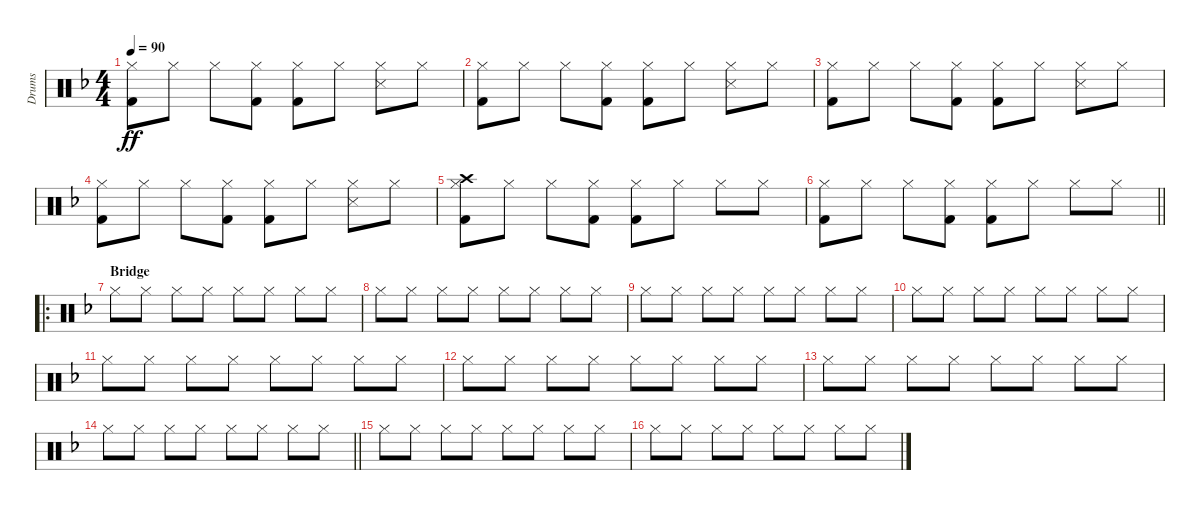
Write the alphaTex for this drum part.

\track ("Drums" "Drums") {instrument percussion}
\staff {score}
\articulation defaults
\ts (4 4)
\tempo 90
\clef neutral
\ks f
("Hi-Hat (closed)" "Kick (hit) 2").8{dy ff} "Hi-Hat (closed)".8 "Hi-Hat (closed)".8 ("Hi-Hat (closed)" "Kick (hit) 2").8 ("Hi-Hat (closed)" "Kick (hit) 2").8 "Hi-Hat (closed)".8 ("Hi-Hat (closed)" "Snare (side stick) 3").8 "Hi-Hat (closed)".8 |
("Hi-Hat (closed)" "Kick (hit) 2").8 "Hi-Hat (closed)".8 "Hi-Hat (closed)".8 ("Hi-Hat (closed)" "Kick (hit) 2").8 ("Hi-Hat (closed)" "Kick (hit) 2").8 "Hi-Hat (closed)".8 ("Hi-Hat (closed)" "Snare (side stick) 3").8 "Hi-Hat (closed)".8 |
("Hi-Hat (closed)" "Kick (hit) 2").8 "Hi-Hat (closed)".8 "Hi-Hat (closed)".8 ("Hi-Hat (closed)" "Kick (hit) 2").8 ("Hi-Hat (closed)" "Kick (hit) 2").8 "Hi-Hat (closed)".8 ("Hi-Hat (closed)" "Snare (side stick) 3").8 "Hi-Hat (closed)".8 |
("Hi-Hat (closed)" "Kick (hit) 2").8 "Hi-Hat (closed)".8 "Hi-Hat (closed)".8 ("Hi-Hat (closed)" "Kick (hit) 2").8 ("Hi-Hat (closed)" "Kick (hit) 2").8 "Hi-Hat (closed)".8 ("Hi-Hat (closed)" "Snare (side stick) 3").8 "Hi-Hat (closed)".8 |
("Hi-Hat (closed)" "Crash high (hit)" "Kick (hit) 2").8 "Hi-Hat (closed)".8 "Hi-Hat (closed)".8 ("Hi-Hat (closed)" "Kick (hit) 2").8 ("Hi-Hat (closed)" "Kick (hit) 2").8 "Hi-Hat (closed)".8 "Hi-Hat (closed)".8 "Hi-Hat (closed)".8 |
\barLineRight lightlight
("Hi-Hat (closed)" "Kick (hit) 2").8 "Hi-Hat (closed)".8 "Hi-Hat (closed)".8 ("Hi-Hat (closed)" "Kick (hit) 2").8 ("Hi-Hat (closed)" "Kick (hit) 2").8 "Hi-Hat (closed)".8 "Hi-Hat (closed)".8 "Hi-Hat (closed)".8 |
\ro
\section ("" "Bridge")
"Hi-Hat (closed)".8 "Hi-Hat (closed)".8 "Hi-Hat (closed)".8 "Hi-Hat (closed)".8 "Hi-Hat (closed)".8 "Hi-Hat (closed)".8 "Hi-Hat (closed)".8 "Hi-Hat (closed)".8 |
"Hi-Hat (closed)".8 "Hi-Hat (closed)".8 "Hi-Hat (closed)".8 "Hi-Hat (closed)".8 "Hi-Hat (closed)".8 "Hi-Hat (closed)".8 "Hi-Hat (closed)".8 "Hi-Hat (closed)".8 |
"Hi-Hat (closed)".8 "Hi-Hat (closed)".8 "Hi-Hat (closed)".8 "Hi-Hat (closed)".8 "Hi-Hat (closed)".8 "Hi-Hat (closed)".8 "Hi-Hat (closed)".8 "Hi-Hat (closed)".8 |
"Hi-Hat (closed)".8 "Hi-Hat (closed)".8 "Hi-Hat (closed)".8 "Hi-Hat (closed)".8 "Hi-Hat (closed)".8 "Hi-Hat (closed)".8 "Hi-Hat (closed)".8 "Hi-Hat (closed)".8 |
"Hi-Hat (closed)".8 "Hi-Hat (closed)".8 "Hi-Hat (closed)".8 "Hi-Hat (closed)".8 "Hi-Hat (closed)".8 "Hi-Hat (closed)".8 "Hi-Hat (closed)".8 "Hi-Hat (closed)".8 |
"Hi-Hat (closed)".8 "Hi-Hat (closed)".8 "Hi-Hat (closed)".8 "Hi-Hat (closed)".8 "Hi-Hat (closed)".8 "Hi-Hat (closed)".8 "Hi-Hat (closed)".8 "Hi-Hat (closed)".8 |
"Hi-Hat (closed)".8 "Hi-Hat (closed)".8 "Hi-Hat (closed)".8 "Hi-Hat (closed)".8 "Hi-Hat (closed)".8 "Hi-Hat (closed)".8 "Hi-Hat (closed)".8 "Hi-Hat (closed)".8 |
\barLineRight lightlight "Hi-Hat (closed)".8 "Hi-Hat (closed)".8 "Hi-Hat (closed)".8 "Hi-Hat (closed)".8 "Hi-Hat (closed)".8 "Hi-Hat (closed)".8 "Hi-Hat (closed)".8 "Hi-Hat (closed)".8
|
"Hi-Hat (closed)".8 "Hi-Hat (closed)".8 "Hi-Hat (closed)".8 "Hi-Hat (closed)".8 "Hi-Hat (closed)".8 "Hi-Hat (closed)".8 "Hi-Hat (closed)".8 "Hi-Hat (closed)".8 |
"Hi-Hat (closed)".8 "Hi-Hat (closed)".8 "Hi-Hat (closed)".8 "Hi-Hat (closed)".8 "Hi-Hat (closed)".8 "Hi-Hat (closed)".8 "Hi-Hat (closed)".8 "Hi-Hat (closed)".8
